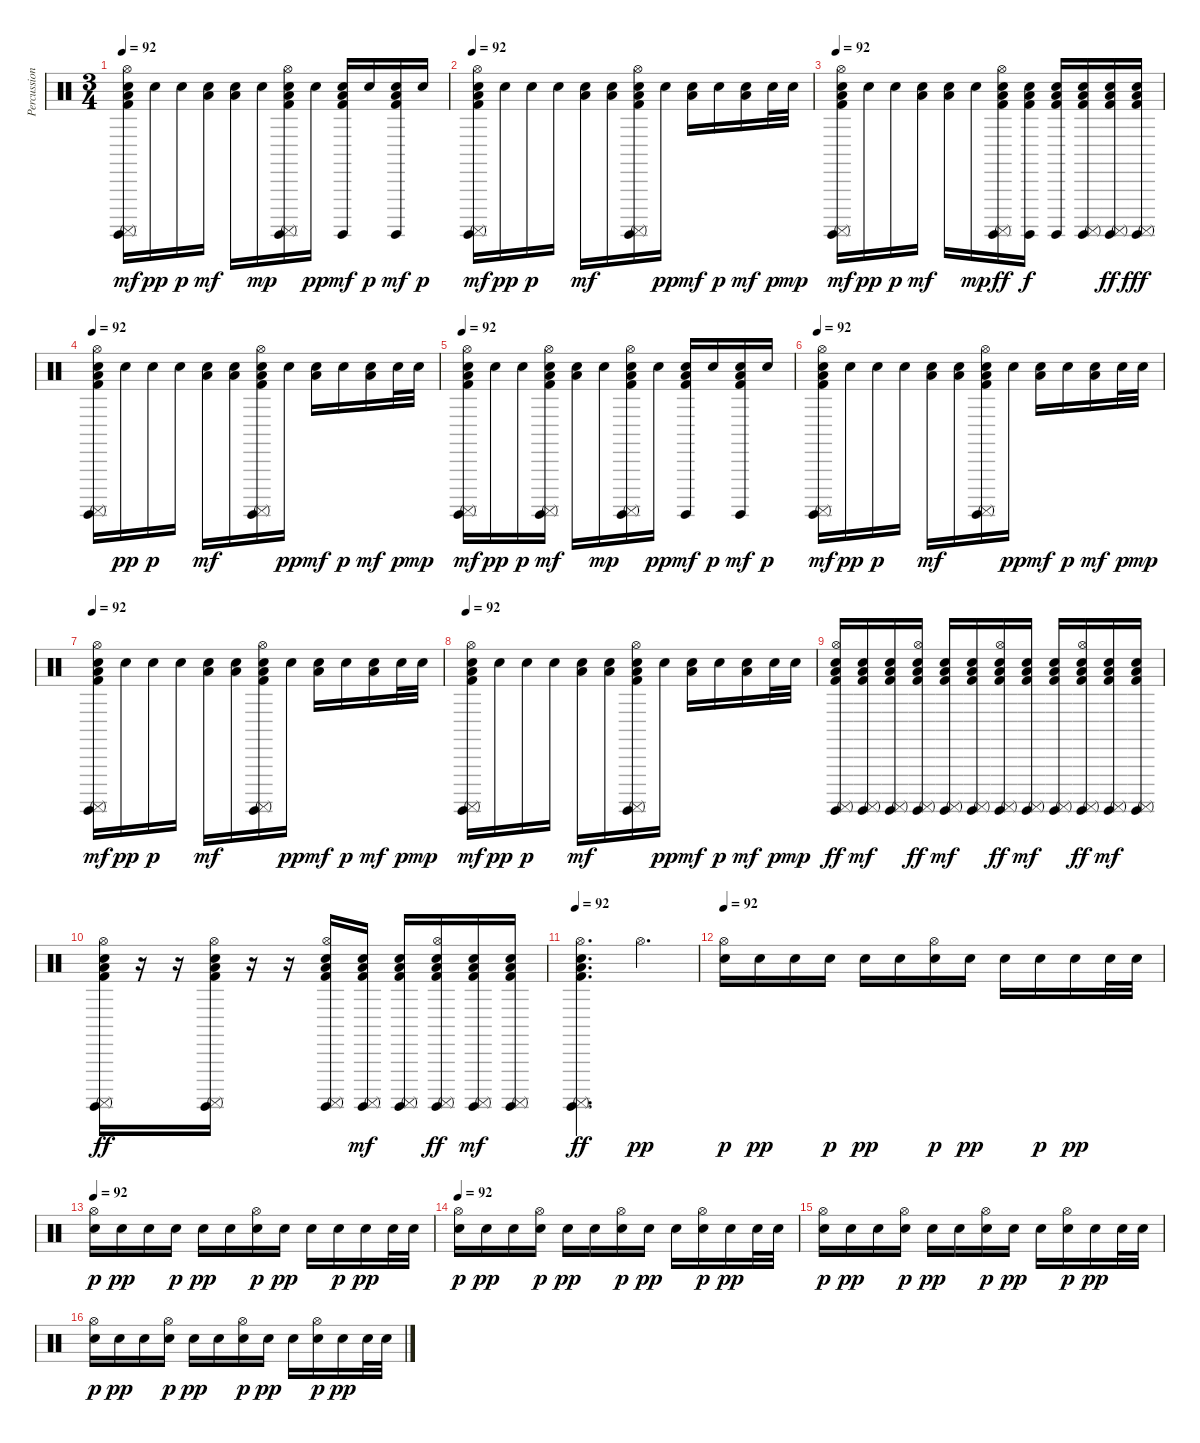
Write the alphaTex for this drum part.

\track ("Percussion" "Percussion") {instrument percussion}
\staff
\articulation defaults
\ts (3 4)
\tempo 92
\clef neutral
\ks c
("Hi-Hat (open)" "Surdo (mute)" "Snare (hit) 2" "Surdo (hit)" "Low Floor Tom (hit)" "Kick (hit) 2").16{dy mf} "Snare (hit) 2".16{dy pp} "Snare (hit) 2".16{dy p} ("Snare (hit) 2" "Low Floor Tom (hit)").16{dy mf} ("Snare (hit) 2" "Low Floor Tom (hit)").16 "Snare (hit) 2".16{dy mp} ("Hi-Hat (open)" "Surdo (mute)" "Snare (hit) 2" "Surdo (hit)" "Low Floor Tom (hit)" "Kick (hit) 2").16 "Snare (hit) 2".16{dy pp} ("Surdo (hit)" "Snare (hit) 2" "Low Floor Tom (hit)" "Kick (hit) 2").16{dy mf} "Snare (hit) 2".16{dy p} ("Surdo (hit)" "Snare (hit) 2" "Low Floor Tom (hit)" "Kick (hit) 2").16{dy mf} "Snare (hit) 2".16{dy p} |
\tempo 92
("Hi-Hat (open)" "Surdo (mute)" "Snare (hit) 2" "Surdo (hit)" "Low Floor Tom (hit)" "Kick (hit) 2").16{dy mf volume 8} "Snare (hit) 2".16{dy pp} "Snare (hit) 2".16{dy p} "Snare (hit) 2".16 ("Snare (hit) 2" "Low Floor Tom (hit)").16{dy mf} ("Snare (hit) 2" "Low Floor Tom (hit)").16 ("Hi-Hat (open)" "Surdo (mute)" "Snare (hit) 2" "Surdo (hit)" "Low Floor Tom (hit)" "Kick (hit) 2").16 "Snare (hit) 2".16{dy pp} ("Snare (hit) 2" "Low Floor Tom (hit)").16{dy mf} "Snare (hit) 2".16{dy p} ("Snare (hit) 2" "Low Floor Tom (hit)").16{dy mf} "Snare (hit) 2".32{dy p} "Snare (hit) 2".32{dy mp} |
\tempo 92
("Hi-Hat (open)" "Surdo (mute)" "Snare (hit) 2" "Surdo (hit)" "Low Floor Tom (hit)" "Kick (hit) 2").16{dy mf} "Snare (hit) 2".16{dy pp} "Snare (hit) 2".16{dy p} ("Snare (hit) 2" "Low Floor Tom (hit)").16{dy mf} ("Snare (hit) 2" "Low Floor Tom (hit)").16 "Snare (hit) 2".16{dy mp} ("Hi-Hat (open)" "Surdo (mute)" "Snare (hit) 2" "Surdo (hit)" "Low Floor Tom (hit)" "Kick (hit) 2").16{dy ff} ("Snare (hit) 2" "Surdo (hit)" "Low Floor Tom (hit)" "Kick (hit) 2").16{dy f} ("Snare (hit) 2" "Surdo (hit)" "Low Floor Tom (hit)" "Kick (hit) 2").16 ("Surdo (mute)" "Snare (hit) 2" "Surdo (hit)" "Low Floor Tom (hit)" "Kick (hit) 2").16 ("Surdo (mute)" "Snare (hit) 2" "Surdo (hit)" "Low Floor Tom (hit)" "Kick (hit) 2").16{dy ff} ("Surdo (mute)" "Snare (hit) 2" "Surdo (hit)" "Low Floor Tom (hit)" "Kick (hit) 2").16{dy fff} |
\tempo 92
("Hi-Hat (open)" "Surdo (mute)" "Snare (hit) 2" "Surdo (hit)" "Low Floor Tom (hit)" "Kick (hit) 2").16 "Snare (hit) 2".16{dy pp} "Snare (hit) 2".16{dy p} "Snare (hit) 2".16 ("Snare (hit) 2" "Low Floor Tom (hit)").16{dy mf} ("Snare (hit) 2" "Low Floor Tom (hit)").16 ("Hi-Hat (open)" "Surdo (mute)" "Snare (hit) 2" "Surdo (hit)" "Low Floor Tom (hit)" "Kick (hit) 2").16 "Snare (hit) 2".16{dy pp} ("Snare (hit) 2" "Low Floor Tom (hit)").16{dy mf} "Snare (hit) 2".16{dy p} ("Snare (hit) 2" "Low Floor Tom (hit)").16{dy mf} "Snare (hit) 2".32{dy p} "Snare (hit) 2".32{dy mp} |
\tempo 92
("Hi-Hat (open)" "Surdo (mute)" "Snare (hit) 2" "Surdo (hit)" "Low Floor Tom (hit)" "Kick (hit) 2").16{dy mf} "Snare (hit) 2".16{dy pp} "Snare (hit) 2".16{dy p} ("Hi-Hat (open)" "Surdo (mute)" "Snare (hit) 2" "Surdo (hit)" "Low Floor Tom (hit)" "Kick (hit) 2").16{dy mf} ("Snare (hit) 2" "Low Floor Tom (hit)").16 "Snare (hit) 2".16{dy mp} ("Hi-Hat (open)" "Surdo (mute)" "Snare (hit) 2" "Surdo (hit)" "Low Floor Tom (hit)" "Kick (hit) 2").16 "Snare (hit) 2".16{dy pp} ("Surdo (hit)" "Snare (hit) 2" "Low Floor Tom (hit)" "Kick (hit) 2").16{dy mf} "Snare (hit) 2".16{dy p} ("Surdo (hit)" "Snare (hit) 2" "Low Floor Tom (hit)" "Kick (hit) 2").16{dy mf} "Snare (hit) 2".16{dy p} |
\tempo 92
("Hi-Hat (open)" "Surdo (mute)" "Snare (hit) 2" "Surdo (hit)" "Low Floor Tom (hit)" "Kick (hit) 2").16{dy mf} "Snare (hit) 2".16{dy pp} "Snare (hit) 2".16{dy p} "Snare (hit) 2".16 ("Snare (hit) 2" "Low Floor Tom (hit)").16{dy mf} ("Snare (hit) 2" "Low Floor Tom (hit)").16 ("Hi-Hat (open)" "Surdo (mute)" "Snare (hit) 2" "Surdo (hit)" "Low Floor Tom (hit)" "Kick (hit) 2").16 "Snare (hit) 2".16{dy pp} ("Snare (hit) 2" "Low Floor Tom (hit)").16{dy mf} "Snare (hit) 2".16{dy p} ("Snare (hit) 2" "Low Floor Tom (hit)").16{dy mf} "Snare (hit) 2".32{dy p} "Snare (hit) 2".32{dy mp} |
\tempo 92
("Hi-Hat (open)" "Surdo (mute)" "Snare (hit) 2" "Surdo (hit)" "Low Floor Tom (hit)" "Kick (hit) 2").16{dy mf volume 10} "Snare (hit) 2".16{dy pp} "Snare (hit) 2".16{dy p} "Snare (hit) 2".16 ("Snare (hit) 2" "Low Floor Tom (hit)").16{dy mf} ("Snare (hit) 2" "Low Floor Tom (hit)").16 ("Hi-Hat (open)" "Surdo (mute)" "Snare (hit) 2" "Surdo (hit)" "Low Floor Tom (hit)" "Kick (hit) 2").16 "Snare (hit) 2".16{dy pp} ("Snare (hit) 2" "Low Floor Tom (hit)").16{dy mf} "Snare (hit) 2".16{dy p} ("Snare (hit) 2" "Low Floor Tom (hit)").16{dy mf} "Snare (hit) 2".32{dy p} "Snare (hit) 2".32{dy mp} |
\tempo 92
("Hi-Hat (open)" "Surdo (mute)" "Snare (hit) 2" "Surdo (hit)" "Low Floor Tom (hit)" "Kick (hit) 2").16{dy mf} "Snare (hit) 2".16{dy pp} "Snare (hit) 2".16{dy p} "Snare (hit) 2".16 ("Snare (hit) 2" "Low Floor Tom (hit)").16{dy mf} ("Snare (hit) 2" "Low Floor Tom (hit)").16 ("Hi-Hat (open)" "Surdo (mute)" "Snare (hit) 2" "Surdo (hit)" "Low Floor Tom (hit)" "Kick (hit) 2").16 "Snare (hit) 2".16{dy pp} ("Snare (hit) 2" "Low Floor Tom (hit)").16{dy mf} "Snare (hit) 2".16{dy p} ("Snare (hit) 2" "Low Floor Tom (hit)").16{dy mf} "Snare (hit) 2".32{dy p} "Snare (hit) 2".32{dy mp} |
("Hi-Hat (open)" "Surdo (mute)" "Snare (hit) 2" "Surdo (hit)" "Low Floor Tom (hit)" "Kick (hit) 2").16{dy ff} ("Surdo (mute)" "Snare (hit) 2" "Surdo (hit)" "Low Floor Tom (hit)" "Kick (hit) 2").16{dy mf} ("Surdo (mute)" "Snare (hit) 2" "Surdo (hit)" "Low Floor Tom (hit)" "Kick (hit) 2").16 ("Hi-Hat (open)" "Surdo (mute)" "Snare (hit) 2" "Surdo (hit)" "Low Floor Tom (hit)" "Kick (hit) 2").16{dy ff} ("Surdo (mute)" "Snare (hit) 2" "Surdo (hit)" "Low Floor Tom (hit)" "Kick (hit) 2").16{dy mf} ("Surdo (mute)" "Snare (hit) 2" "Surdo (hit)" "Low Floor Tom (hit)" "Kick (hit) 2").16 ("Hi-Hat (open)" "Surdo (mute)" "Snare (hit) 2" "Surdo (hit)" "Low Floor Tom (hit)" "Kick (hit) 2").16{dy ff} ("Surdo (mute)" "Snare (hit) 2" "Surdo (hit)" "Low Floor Tom (hit)" "Kick (hit) 2").16{dy mf} ("Surdo (mute)" "Snare (hit) 2" "Surdo (hit)" "Low Floor Tom (hit)" "Kick (hit) 2").16 ("Hi-Hat (open)" "Surdo (mute)" "Snare (hit) 2" "Surdo (hit)" "Low Floor Tom (hit)" "Kick (hit) 2").16{dy ff} ("Surdo (mute)" "Snare (hit) 2" "Surdo (hit)" "Low Floor Tom (hit)" "Kick (hit) 2").16{dy mf} ("Surdo (mute)" "Snare (hit) 2" "Surdo (hit)" "Low Floor Tom (hit)" "Kick (hit) 2").16 |
("Hi-Hat (open)" "Surdo (mute)" "Snare (hit) 2" "Surdo (hit)" "Low Floor Tom (hit)" "Kick (hit) 2").16{dy ff volume 7} r.16 r.16 ("Hi-Hat (open)" "Surdo (mute)" "Snare (hit) 2" "Surdo (hit)" "Low Floor Tom (hit)" "Kick (hit) 2").16 r.16 r.16 ("Hi-Hat (open)" "Surdo (mute)" "Snare (hit) 2" "Surdo (hit)" "Low Floor Tom (hit)" "Kick (hit) 2").16 ("Surdo (mute)" "Snare (hit) 2" "Surdo (hit)" "Low Floor Tom (hit)" "Kick (hit) 2").16{dy mf} ("Surdo (mute)" "Snare (hit) 2" "Surdo (hit)" "Low Floor Tom (hit)" "Kick (hit) 2").16 ("Hi-Hat (open)" "Surdo (mute)" "Snare (hit) 2" "Surdo (hit)" "Low Floor Tom (hit)" "Kick (hit) 2").16{dy ff} ("Surdo (mute)" "Snare (hit) 2" "Surdo (hit)" "Low Floor Tom (hit)" "Kick (hit) 2").16{dy mf} ("Surdo (mute)" "Snare (hit) 2" "Surdo (hit)" "Low Floor Tom (hit)" "Kick (hit) 2").16 |
\tempo 92
("Hi-Hat (open)" "Surdo (mute)" "Snare (hit) 2" "Surdo (hit)" "Low Floor Tom (hit)" "Kick (hit) 2").4{d dy ff} "Hi-Hat (open)".4{d dy pp} |
\tempo 92
("Hi-Hat (open)" "Snare (hit) 2").16{dy p volume 4} "Snare (hit) 2".16{dy pp} "Snare (hit) 2".16 "Snare (hit) 2".16{dy p} "Snare (hit) 2".16{dy pp} "Snare (hit) 2".16 ("Hi-Hat (open)" "Snare (hit) 2").16{dy p} "Snare (hit) 2".16{dy pp} "Snare (hit) 2".16 "Snare (hit) 2".16{dy p} "Snare (hit) 2".16{dy pp} "Snare (hit) 2".32 "Snare (hit) 2".32 |
\tempo 92
("Hi-Hat (open)" "Snare (hit) 2").16{dy p} "Snare (hit) 2".16{dy pp} "Snare (hit) 2".16 "Snare (hit) 2".16{dy p} "Snare (hit) 2".16{dy pp} "Snare (hit) 2".16 ("Hi-Hat (open)" "Snare (hit) 2").16{dy p} "Snare (hit) 2".16{dy pp} "Snare (hit) 2".16 "Snare (hit) 2".16{dy p} "Snare (hit) 2".16{dy pp} "Snare (hit) 2".32 "Snare (hit) 2".32 |
\tempo 92
("Hi-Hat (open)" "Snare (hit) 2").16{dy p} "Snare (hit) 2".16{dy pp} "Snare (hit) 2".16 ("Hi-Hat (open)" "Snare (hit) 2").16{dy p} "Snare (hit) 2".16{dy pp} "Snare (hit) 2".16 ("Hi-Hat (open)" "Snare (hit) 2").16{dy p} "Snare (hit) 2".16{dy pp} "Snare (hit) 2".16 ("Hi-Hat (open)" "Snare (hit) 2").16{dy p} "Snare (hit) 2".16{dy pp} "Snare (hit) 2".32 "Snare (hit) 2".32 |
("Hi-Hat (open)" "Snare (hit) 2").16{dy p volume 6} "Snare (hit) 2".16{dy pp} "Snare (hit) 2".16 ("Hi-Hat (open)" "Snare (hit) 2").16{dy p} "Snare (hit) 2".16{dy pp} "Snare (hit) 2".16 ("Hi-Hat (open)" "Snare (hit) 2").16{dy p} "Snare (hit) 2".16{dy pp} "Snare (hit) 2".16 ("Hi-Hat (open)" "Snare (hit) 2").16{dy p} "Snare (hit) 2".16{dy pp} "Snare (hit) 2".32 "Snare (hit) 2".32 |
("Hi-Hat (open)" "Snare (hit) 2").16{dy p} "Snare (hit) 2".16{dy pp} "Snare (hit) 2".16 ("Hi-Hat (open)" "Snare (hit) 2").16{dy p} "Snare (hit) 2".16{dy pp} "Snare (hit) 2".16 ("Hi-Hat (open)" "Snare (hit) 2").16{dy p} "Snare (hit) 2".16{dy pp} "Snare (hit) 2".16 ("Hi-Hat (open)" "Snare (hit) 2").16{dy p} "Snare (hit) 2".16{dy pp} "Snare (hit) 2".32 "Snare (hit) 2".32
